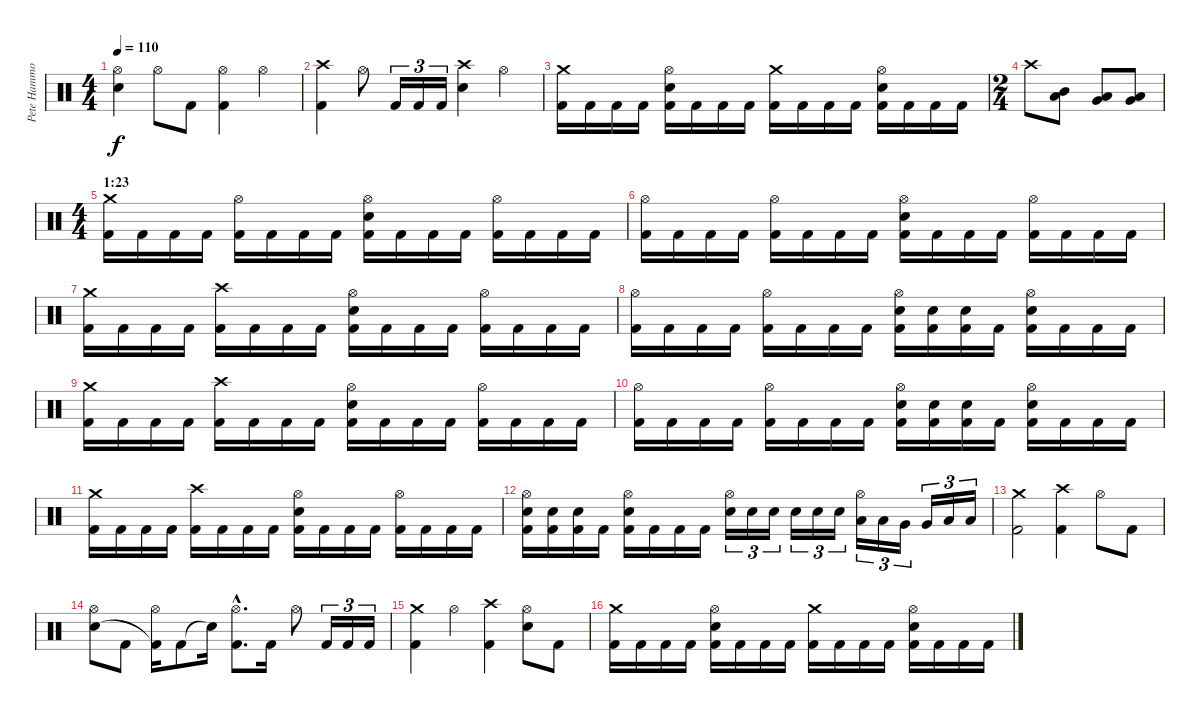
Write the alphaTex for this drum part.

\track ("Pete Hammoura" "Pete Hammo") {instrument percussion}
\staff {score}
\articulation defaults
\ts (4 4)
\tempo 110
\clef neutral
\ks c
("Hi-Hat (open)" "Electric Snare (hit)").4{dy f} "Hi-Hat (open)".8 "Kick (hit) 2".8 ("Hi-Hat (open)" "Kick (hit) 2").4 "Hi-Hat (open)".4 |
("Crash high (hit)" "Kick (hit) 2").4 "Hi-Hat (open)".8 "Kick (hit) 2".16{tu (3 2)} "Kick (hit) 2".16{tu (3 2)} "Kick (hit) 2".16{tu (3 2)} ("Crash high (hit)" "Electric Snare (hit)").4 "Hi-Hat (open)".4 |
("Crash medium (hit)" "Kick (hit) 2").16 "Kick (hit) 2".16 "Kick (hit) 2".16 "Kick (hit) 2".16 ("Hi-Hat (open)" "Electric Snare (hit)" "Kick (hit) 2").16 "Kick (hit) 2".16 "Kick (hit) 2".16 "Kick (hit) 2".16 ("Crash medium (hit)" "Kick (hit) 2").16 "Kick (hit) 2".16 "Kick (hit) 2".16 "Kick (hit) 2".16 ("Hi-Hat (open)" "Electric Snare (hit)" "Kick (hit) 2").16 "Kick (hit) 2".16 "Kick (hit) 2".16 "Kick (hit) 2".16 |
\ts (2 4)
"Crash high (hit)".8 ("Mid Tom (hit)" "Low Tom (hit)").8 ("Low Tom (hit)" "Very Low Tom (hit)").8 ("Very Low Tom (hit)" "Low Floor Tom (hit)").8 |
\ts (4 4)
\section ("" "1:23")
("Crash medium (hit)" "Kick (hit) 2").16 "Kick (hit) 2".16 "Kick (hit) 2".16 "Kick (hit) 2".16 ("Hi-Hat (open)" "Kick (hit) 2").16 "Kick (hit) 2".16 "Kick (hit) 2".16 "Kick (hit) 2".16 ("Hi-Hat (open)" "Electric Snare (hit)" "Kick (hit) 2").16 "Kick (hit) 2".16 "Kick (hit) 2".16 "Kick (hit) 2".16 ("Hi-Hat (open)" "Kick (hit) 2").16 "Kick (hit) 2".16 "Kick (hit) 2".16 "Kick (hit) 2".16 |
("Hi-Hat (open)" "Kick (hit) 2").16 "Kick (hit) 2".16 "Kick (hit) 2".16 "Kick (hit) 2".16 ("Hi-Hat (open)" "Kick (hit) 2").16 "Kick (hit) 2".16 "Kick (hit) 2".16 "Kick (hit) 2".16 ("Hi-Hat (open)" "Electric Snare (hit)" "Kick (hit) 2").16 "Kick (hit) 2".16 "Kick (hit) 2".16 "Kick (hit) 2".16 ("Hi-Hat (open)" "Kick (hit) 2").16 "Kick (hit) 2".16 "Kick (hit) 2".16 "Kick (hit) 2".16 |
("Crash medium (hit)" "Kick (hit) 2").16 "Kick (hit) 2".16 "Kick (hit) 2".16 "Kick (hit) 2".16 ("Crash high (hit)" "Kick (hit) 2").16 "Kick (hit) 2".16 "Kick (hit) 2".16 "Kick (hit) 2".16 ("Hi-Hat (open)" "Electric Snare (hit)" "Kick (hit) 2").16 "Kick (hit) 2".16 "Kick (hit) 2".16 "Kick (hit) 2".16 ("Hi-Hat (open)" "Kick (hit) 2").16 "Kick (hit) 2".16 "Kick (hit) 2".16 "Kick (hit) 2".16 |
("Hi-Hat (open)" "Kick (hit) 2").16 "Kick (hit) 2".16 "Kick (hit) 2".16 "Kick (hit) 2".16 ("Hi-Hat (open)" "Kick (hit) 2").16 "Kick (hit) 2".16 "Kick (hit) 2".16 "Kick (hit) 2".16 ("Hi-Hat (open)" "Electric Snare (hit)" "Kick (hit) 2").16 ("Electric Snare (hit)" "Kick (hit) 2").16 ("Electric Snare (hit)" "Kick (hit) 2").16 "Kick (hit) 2".16 ("Hi-Hat (open)" "Electric Snare (hit)" "Kick (hit) 2").16 "Kick (hit) 2".16 "Kick (hit) 2".16 "Kick (hit) 2".16 |
("Crash medium (hit)" "Kick (hit) 2").16 "Kick (hit) 2".16 "Kick (hit) 2".16 "Kick (hit) 2".16 ("Crash high (hit)" "Kick (hit) 2").16 "Kick (hit) 2".16 "Kick (hit) 2".16 "Kick (hit) 2".16 ("Hi-Hat (open)" "Electric Snare (hit)" "Kick (hit) 2").16 "Kick (hit) 2".16 "Kick (hit) 2".16 "Kick (hit) 2".16 ("Hi-Hat (open)" "Kick (hit) 2").16 "Kick (hit) 2".16 "Kick (hit) 2".16 "Kick (hit) 2".16 |
("Hi-Hat (open)" "Kick (hit) 2").16 "Kick (hit) 2".16 "Kick (hit) 2".16 "Kick (hit) 2".16 ("Hi-Hat (open)" "Kick (hit) 2").16 "Kick (hit) 2".16 "Kick (hit) 2".16 "Kick (hit) 2".16 ("Hi-Hat (open)" "Electric Snare (hit)" "Kick (hit) 2").16 ("Electric Snare (hit)" "Kick (hit) 2").16 ("Electric Snare (hit)" "Kick (hit) 2").16 "Kick (hit) 2".16 ("Hi-Hat (open)" "Electric Snare (hit)" "Kick (hit) 2").16 "Kick (hit) 2".16 "Kick (hit) 2".16 "Kick (hit) 2".16 |
("Crash medium (hit)" "Kick (hit) 2").16 "Kick (hit) 2".16 "Kick (hit) 2".16 "Kick (hit) 2".16 ("Crash high (hit)" "Kick (hit) 2").16 "Kick (hit) 2".16 "Kick (hit) 2".16 "Kick (hit) 2".16 ("Hi-Hat (open)" "Electric Snare (hit)" "Kick (hit) 2").16 "Kick (hit) 2".16 "Kick (hit) 2".16 "Kick (hit) 2".16 ("Hi-Hat (open)" "Kick (hit) 2").16 "Kick (hit) 2".16 "Kick (hit) 2".16 "Kick (hit) 2".16 |
("Hi-Hat (open)" "Electric Snare (hit)" "Kick (hit) 2").16 ("Electric Snare (hit)" "Kick (hit) 2").16 ("Electric Snare (hit)" "Kick (hit) 2").16 "Kick (hit) 2".16 ("Hi-Hat (open)" "Electric Snare (hit)" "Kick (hit) 2").16 "Kick (hit) 2".16 "Kick (hit) 2".16 "Kick (hit) 2".16 ("Hi-Hat (open)" "Electric Snare (hit)").16{tu (3 2)} "Electric Snare (hit)".16{tu (3 2)} "Electric Snare (hit)".16{tu (3 2)} "Electric Snare (hit)".16{tu (3 2)} "Electric Snare (hit)".16{tu (3 2)} "Electric Snare (hit)".16{tu (3 2)} ("Hi-Hat (open)" "Low Tom (hit)").16{tu (3 2)} "Low Tom (hit)".16{tu (3 2)} "Very Low Tom (hit)".16{tu (3 2)} "Very Low Tom (hit)".16{tu (3 2)} "Low Floor Tom (hit)".16{tu (3 2)} "Low Floor Tom (hit)".16{tu (3 2)} |
("Crash medium (hit)" "Kick (hit) 2").2 ("Crash high (hit)" "Kick (hit) 2").4 "Hi-Hat (open)".8 "Kick (hit) 2".8 |
("Hi-Hat (open)" "Electric Snare (hit)").8 "Kick (hit) 2".8 ("Hi-Hat (open)" "Kick (hit) 2"{t}).16 "Kick (hit) 2".8 "Snare (hit)"{t}.16 ("Hi-Hat (open)"{hac} "Kick (hit) 2"{hac}).8{d} "Kick (hit) 2".16 "Hi-Hat (open)".8 "Kick (hit) 2".16{tu (3 2)} "Kick (hit) 2".16{tu (3 2)} "Kick (hit) 2".16{tu (3 2)} |
("Crash medium (hit)" "Kick (hit) 2").4 "Hi-Hat (open)".4 ("Crash high (hit)" "Kick (hit) 2").4 ("Hi-Hat (open)" "Electric Snare (hit)").8 "Kick (hit) 2".8 |
("Crash medium (hit)" "Kick (hit) 2").16 "Kick (hit) 2".16 "Kick (hit) 2".16 "Kick (hit) 2".16 ("Hi-Hat (open)" "Electric Snare (hit)" "Kick (hit) 2").16 "Kick (hit) 2".16 "Kick (hit) 2".16 "Kick (hit) 2".16 ("Crash medium (hit)" "Kick (hit) 2").16 "Kick (hit) 2".16 "Kick (hit) 2".16 "Kick (hit) 2".16 ("Hi-Hat (open)" "Electric Snare (hit)" "Kick (hit) 2").16 "Kick (hit) 2".16 "Kick (hit) 2".16 "Kick (hit) 2".16
